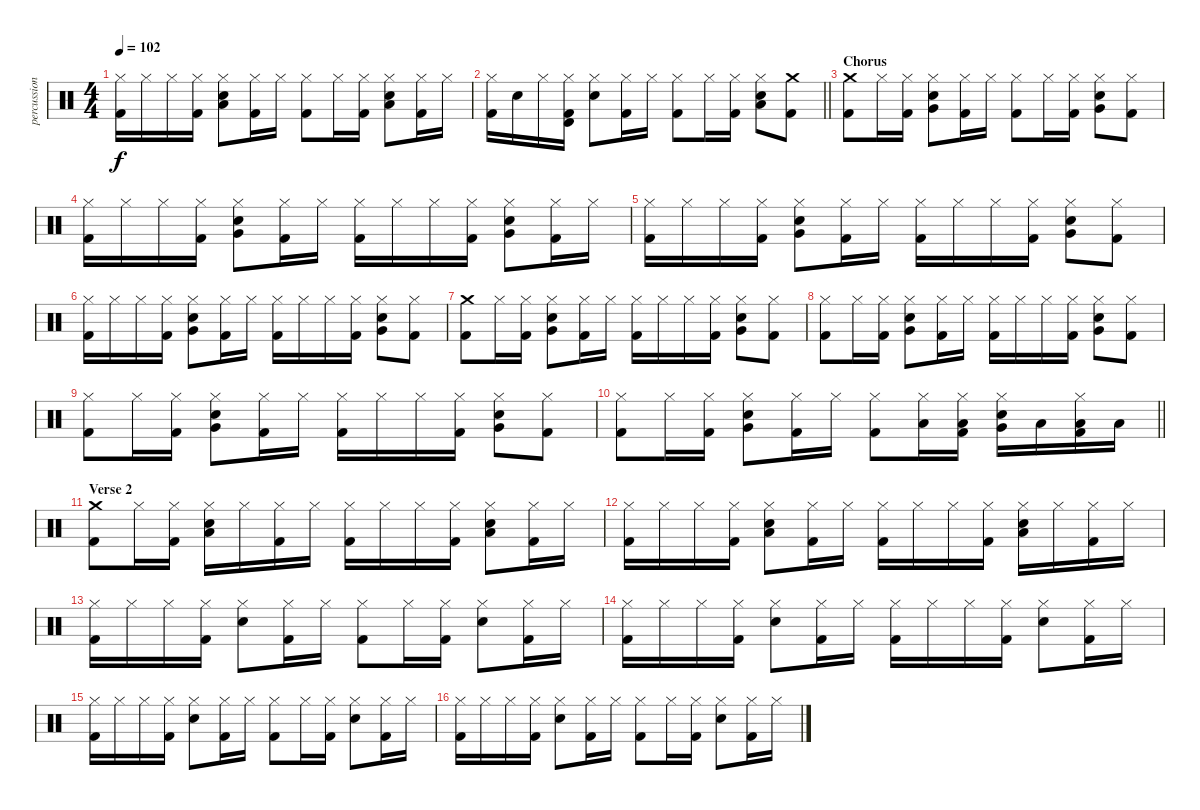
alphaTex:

\track ("percussion" "percussion") {instrument percussion}
\staff {score}
\articulation defaults
\ts (4 4)
\tempo 102
\clef neutral
\ks aminor
("Hi-Hat (closed)" "Kick (hit) 2").16{dy f} "Hi-Hat (closed)".16 "Hi-Hat (closed)".16 ("Hi-Hat (closed)" "Kick (hit) 2").16 ("Low Floor Tom (hit)" "Snare (hit) 2" "Hi-Hat (closed)").8 ("Hi-Hat (closed)" "Kick (hit) 2").16 "Hi-Hat (closed)".16 ("Hi-Hat (closed)" "Kick (hit) 2").8 "Hi-Hat (closed)".16 ("Hi-Hat (closed)" "Kick (hit) 2").16 ("Low Floor Tom (hit)" "Snare (hit) 2" "Hi-Hat (closed)").8 ("Hi-Hat (closed)" "Kick (hit) 2").16 "Hi-Hat (closed)".16 |
\barLineRight lightlight
("Hi-Hat (closed)" "Kick (hit) 2").16 "Snare (hit) 2".16 "Hi-Hat (closed)".16 ("Timbale high (hit)" "Hi-Hat (closed)" "Kick (hit) 2").16 ("Snare (hit) 2" "Hi-Hat (closed)").8 ("Hi-Hat (closed)" "Kick (hit) 2").16 "Hi-Hat (closed)".16 ("Hi-Hat (closed)" "Kick (hit) 2").8 "Hi-Hat (closed)".16 ("Hi-Hat (closed)" "Kick (hit) 2").16 ("Low Floor Tom (hit)" "Snare (hit) 2" "Hi-Hat (closed)").8 ("Crash medium (hit)" "Kick (hit) 2").8 |
\section ("" "Chorus")
("Crash medium (hit)" "Kick (hit) 2").8 "Hi-Hat (closed)".16 ("Hi-Hat (closed)" "Kick (hit) 2").16 ("Very Low Tom (hit)" "Snare (hit) 2" "Hi-Hat (closed)").8 ("Hi-Hat (closed)" "Kick (hit) 2").16 "Hi-Hat (closed)".16 ("Hi-Hat (closed)" "Kick (hit) 2").8 "Hi-Hat (closed)".16 ("Hi-Hat (closed)" "Kick (hit) 2").16 ("Very Low Tom (hit)" "Snare (hit) 2" "Hi-Hat (closed)").8 ("Hi-Hat (closed)" "Kick (hit) 2").8 |
("Hi-Hat (closed)" "Kick (hit) 2").16 "Hi-Hat (closed)".16 "Hi-Hat (closed)".16 ("Hi-Hat (closed)" "Kick (hit) 2").16 ("Very Low Tom (hit)" "Snare (hit) 2" "Hi-Hat (closed)").8 ("Hi-Hat (closed)" "Kick (hit) 2").16 "Hi-Hat (closed)".16 ("Hi-Hat (closed)" "Kick (hit) 2").16 "Hi-Hat (closed)".16 "Hi-Hat (closed)".16 ("Hi-Hat (closed)" "Kick (hit) 2").16 ("Very Low Tom (hit)" "Snare (hit) 2" "Hi-Hat (closed)").8 ("Hi-Hat (closed)" "Kick (hit) 2").16 "Hi-Hat (closed)".16 |
("Hi-Hat (closed)" "Kick (hit) 2").16 "Hi-Hat (closed)".16 "Hi-Hat (closed)".16 ("Hi-Hat (closed)" "Kick (hit) 2").16 ("Very Low Tom (hit)" "Snare (hit) 2" "Hi-Hat (closed)").8 ("Hi-Hat (closed)" "Kick (hit) 2").16 "Hi-Hat (closed)".16 ("Hi-Hat (closed)" "Kick (hit) 2").16 "Hi-Hat (closed)".16 "Hi-Hat (closed)".16 ("Hi-Hat (closed)" "Kick (hit) 2").16 ("Very Low Tom (hit)" "Snare (hit) 2" "Hi-Hat (closed)").8 ("Hi-Hat (closed)" "Kick (hit) 2").8 |
("Hi-Hat (closed)" "Kick (hit) 2").16 "Hi-Hat (closed)".16 "Hi-Hat (closed)".16 ("Hi-Hat (closed)" "Kick (hit) 2").16 ("Very Low Tom (hit)" "Snare (hit) 2" "Hi-Hat (closed)").8 ("Hi-Hat (closed)" "Kick (hit) 2").16 "Hi-Hat (closed)".16 ("Hi-Hat (closed)" "Kick (hit) 2").16 "Hi-Hat (closed)".16 "Hi-Hat (closed)".16 ("Hi-Hat (closed)" "Kick (hit) 2").16 ("Very Low Tom (hit)" "Snare (hit) 2" "Hi-Hat (closed)").8 ("Hi-Hat (closed)" "Kick (hit) 2").8 |
("Crash medium (hit)" "Kick (hit) 2").8 "Hi-Hat (closed)".16 ("Hi-Hat (closed)" "Kick (hit) 2").16 ("Very Low Tom (hit)" "Snare (hit) 2" "Hi-Hat (closed)").8 ("Hi-Hat (closed)" "Kick (hit) 2").16 "Hi-Hat (closed)".16 ("Hi-Hat (closed)" "Kick (hit) 2").16 "Hi-Hat (closed)".16 "Hi-Hat (closed)".16 ("Hi-Hat (closed)" "Kick (hit) 2").16 ("Very Low Tom (hit)" "Snare (hit) 2" "Hi-Hat (closed)").8 ("Hi-Hat (closed)" "Kick (hit) 2").8 |
("Hi-Hat (closed)" "Kick (hit) 2").8 "Hi-Hat (closed)".16 ("Hi-Hat (closed)" "Kick (hit) 2").16 ("Very Low Tom (hit)" "Snare (hit) 2" "Hi-Hat (closed)").8 ("Hi-Hat (closed)" "Kick (hit) 2").16 "Hi-Hat (closed)".16 ("Hi-Hat (closed)" "Kick (hit) 2").16 "Hi-Hat (closed)".16 "Hi-Hat (closed)".16 ("Hi-Hat (closed)" "Kick (hit) 2").16 ("Very Low Tom (hit)" "Snare (hit) 2" "Hi-Hat (closed)").8 ("Hi-Hat (closed)" "Kick (hit) 2").8 |
("Hi-Hat (closed)" "Kick (hit) 2").8 "Hi-Hat (closed)".16 ("Hi-Hat (closed)" "Kick (hit) 2").16 ("Very Low Tom (hit)" "Snare (hit) 2" "Hi-Hat (closed)").8 ("Hi-Hat (closed)" "Kick (hit) 2").16 "Hi-Hat (closed)".16 ("Hi-Hat (closed)" "Kick (hit) 2").16 "Hi-Hat (closed)".16 "Hi-Hat (closed)".16 ("Hi-Hat (closed)" "Kick (hit) 2").16 ("Very Low Tom (hit)" "Snare (hit) 2" "Hi-Hat (closed)").8 ("Hi-Hat (closed)" "Kick (hit) 2").8 |
\barLineRight lightlight
("Hi-Hat (closed)" "Kick (hit) 2").8 "Hi-Hat (closed)".16 ("Hi-Hat (closed)" "Kick (hit) 2").16 ("Very Low Tom (hit)" "Snare (hit) 2" "Hi-Hat (closed)").8 ("Hi-Hat (closed)" "Kick (hit) 2").16 "Hi-Hat (closed)".16 ("Hi-Hat (closed)" "Kick (hit) 2").8 ("Low Tom (hit)" "Hi-Hat (closed)").16 ("Low Tom (hit)" "Hi-Hat (closed)" "Kick (hit) 2").16 ("Very Low Tom (hit)" "Snare (hit) 2" "Hi-Hat (closed)").16 "Low Tom (hit)".16 ("Low Tom (hit)" "Hi-Hat (closed)" "Kick (hit) 2").16 "Low Tom (hit)".16 |
\section ("" "Verse 2")
("Crash medium (hit)" "Kick (hit) 2").8 "Hi-Hat (closed)".16 ("Hi-Hat (closed)" "Kick (hit) 2").16 ("Low Floor Tom (hit)" "Snare (hit) 2" "Hi-Hat (closed)").16 "Hi-Hat (closed)".16 ("Hi-Hat (closed)" "Kick (hit) 2").16 "Hi-Hat (closed)".16 ("Hi-Hat (closed)" "Kick (hit) 2").16 "Hi-Hat (closed)".16 "Hi-Hat (closed)".16 ("Hi-Hat (closed)" "Kick (hit) 2").16 ("Low Floor Tom (hit)" "Snare (hit) 2" "Hi-Hat (closed)").8 ("Hi-Hat (closed)" "Kick (hit) 2").16 "Hi-Hat (closed)".16 |
("Hi-Hat (closed)" "Kick (hit) 2").16 "Hi-Hat (closed)".16 "Hi-Hat (closed)".16 ("Hi-Hat (closed)" "Kick (hit) 2").16 ("Low Floor Tom (hit)" "Snare (hit) 2" "Hi-Hat (closed)").8 ("Hi-Hat (closed)" "Kick (hit) 2").16 "Hi-Hat (closed)".16 ("Hi-Hat (closed)" "Kick (hit) 2").16 "Hi-Hat (closed)".16 "Hi-Hat (closed)".16 ("Hi-Hat (closed)" "Kick (hit) 2").16 ("Low Floor Tom (hit)" "Snare (hit) 2" "Hi-Hat (closed)").16 "Hi-Hat (closed)".16 ("Hi-Hat (closed)" "Kick (hit) 2").16 "Hi-Hat (closed)".16 |
("Hi-Hat (closed)" "Kick (hit) 2").16 "Hi-Hat (closed)".16 "Hi-Hat (closed)".16 ("Hi-Hat (closed)" "Kick (hit) 2").16 ("Snare (hit) 2" "Hi-Hat (closed)").8 ("Hi-Hat (closed)" "Kick (hit) 2").16 "Hi-Hat (closed)".16 ("Hi-Hat (closed)" "Kick (hit) 2").8 "Hi-Hat (closed)".16 ("Hi-Hat (closed)" "Kick (hit) 2").16 ("Snare (hit) 2" "Hi-Hat (closed)").8 ("Hi-Hat (closed)" "Kick (hit) 2").16 "Hi-Hat (closed)".16 |
("Hi-Hat (closed)" "Kick (hit) 2").16 "Hi-Hat (closed)".16 "Hi-Hat (closed)".16 ("Hi-Hat (closed)" "Kick (hit) 2").16 ("Snare (hit) 2" "Hi-Hat (closed)").8 ("Hi-Hat (closed)" "Kick (hit) 2").16 "Hi-Hat (closed)".16 ("Hi-Hat (closed)" "Kick (hit) 2").16 "Hi-Hat (closed)".16 "Hi-Hat (closed)".16 ("Hi-Hat (closed)" "Kick (hit) 2").16 ("Snare (hit) 2" "Hi-Hat (closed)").8 ("Hi-Hat (closed)" "Kick (hit) 2").16 "Hi-Hat (closed)".16 |
("Hi-Hat (closed)" "Kick (hit) 2").16 "Hi-Hat (closed)".16 "Hi-Hat (closed)".16 ("Hi-Hat (closed)" "Kick (hit) 2").16 ("Snare (hit) 2" "Hi-Hat (closed)").8 ("Hi-Hat (closed)" "Kick (hit) 2").16 "Hi-Hat (closed)".16 ("Hi-Hat (closed)" "Kick (hit) 2").8 "Hi-Hat (closed)".16 ("Hi-Hat (closed)" "Kick (hit) 2").16 ("Snare (hit) 2" "Hi-Hat (closed)").8 ("Hi-Hat (closed)" "Kick (hit) 2").16 "Hi-Hat (closed)".16 |
("Hi-Hat (closed)" "Kick (hit) 2").16 "Hi-Hat (closed)".16 "Hi-Hat (closed)".16 ("Hi-Hat (closed)" "Kick (hit) 2").16 ("Snare (hit) 2" "Hi-Hat (closed)").8 ("Hi-Hat (closed)" "Kick (hit) 2").16 "Hi-Hat (closed)".16 ("Hi-Hat (closed)" "Kick (hit) 2").8 "Hi-Hat (closed)".16 ("Hi-Hat (closed)" "Kick (hit) 2").16 ("Snare (hit) 2" "Hi-Hat (closed)").8 ("Hi-Hat (closed)" "Kick (hit) 2").16 "Hi-Hat (closed)".16
